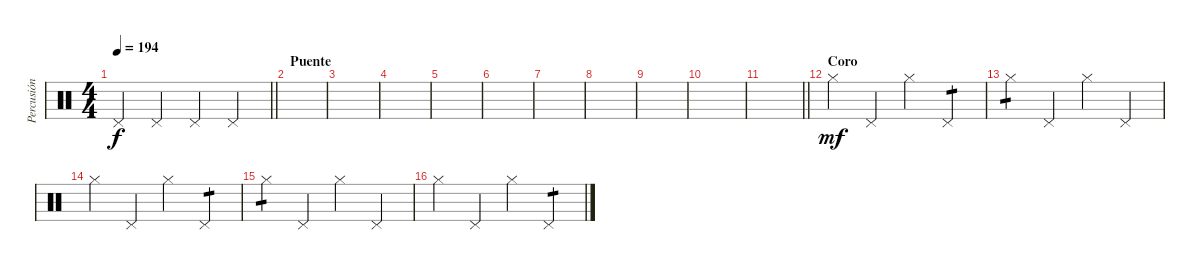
\track ("Percusión" "Percusión") {instrument percussion}
\staff {score}
\articulation defaults
\ts (4 4)
\tempo 194
\clef neutral
\barLineRight lightlight
\ks c "Pedal Hi-Hat (hit)".4{dy f} "Pedal Hi-Hat (hit)".4 "Pedal Hi-Hat (hit)".4 "Pedal Hi-Hat (hit)".4
|
\section ("" "Puente")
|
|
|
|
|
|
|
|
|
\barLineRight lightlight
|
\section ("" "Coro")
"Hi-Hat (closed)".4{dy mf} "Pedal Hi-Hat (hit)".4 "Hi-Hat (closed)".4 "Pedal Hi-Hat (hit)".4{tp 1} |
"Hi-Hat (closed)".4{tp 1} "Pedal Hi-Hat (hit)".4 "Hi-Hat (closed)".4 "Pedal Hi-Hat (hit)".4 |
"Hi-Hat (closed)".4 "Pedal Hi-Hat (hit)".4 "Hi-Hat (closed)".4 "Pedal Hi-Hat (hit)".4{tp 1} |
"Hi-Hat (closed)".4{tp 1} "Pedal Hi-Hat (hit)".4 "Hi-Hat (closed)".4 "Pedal Hi-Hat (hit)".4 |
"Hi-Hat (closed)".4 "Pedal Hi-Hat (hit)".4 "Hi-Hat (closed)".4 "Pedal Hi-Hat (hit)".4{tp 1}
